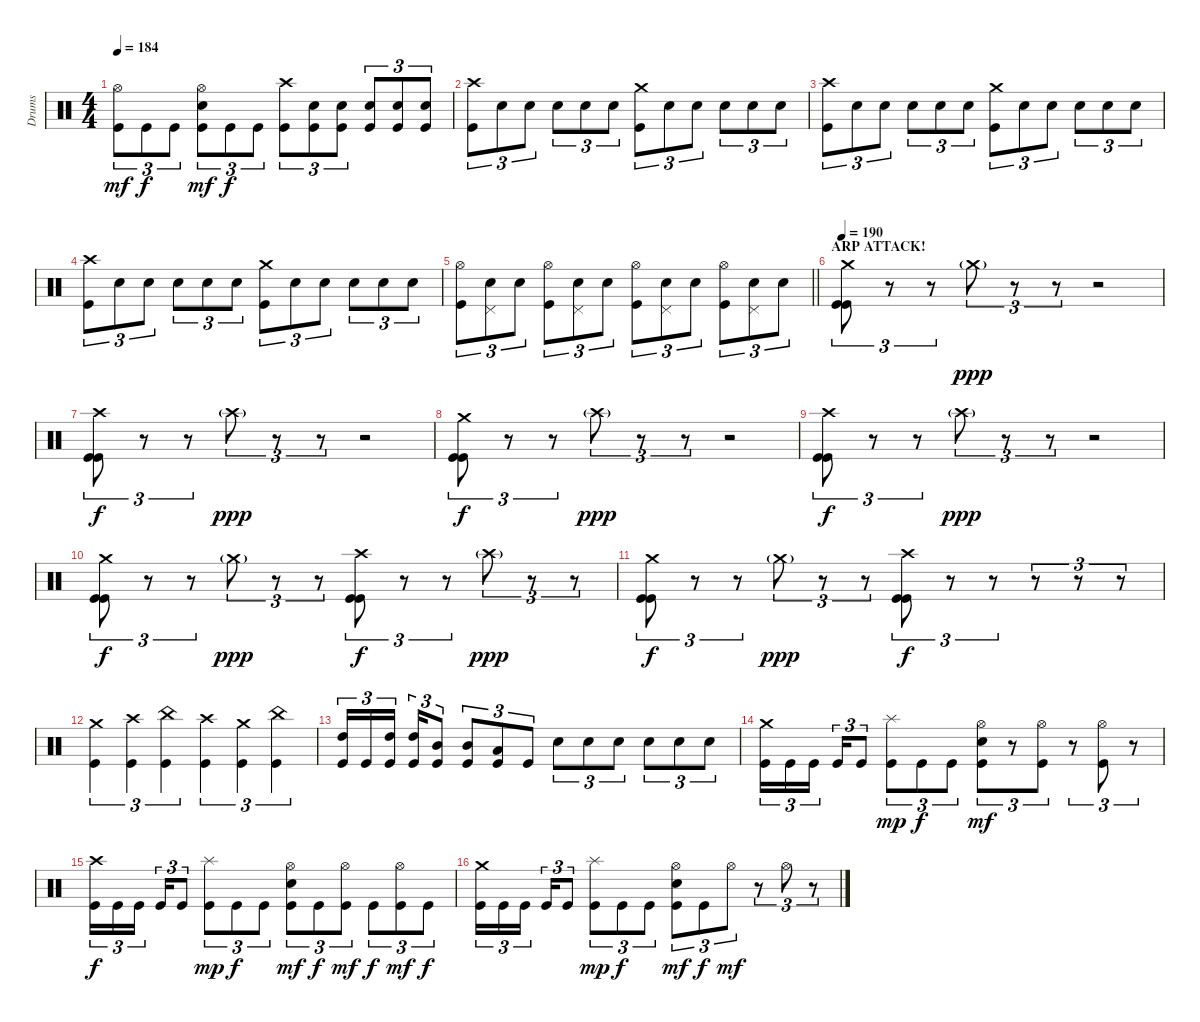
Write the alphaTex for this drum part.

\track ("Drums" "Drums") {instrument percussion}
\staff {score}
\articulation defaults
\ts (4 4)
\tempo 184
\clef neutral
\ks c
("Hi-Hat (open)" "Kick (hit)").8{tu (3 2) dy mf} "Kick (hit)".8{tu (3 2) dy f} "Kick (hit)".8{tu (3 2)} ("Hi-Hat (open)" "Electric Snare (hit)" "Kick (hit)").8{tu (3 2) dy mf} "Kick (hit)".8{tu (3 2) dy f} "Kick (hit)".8{tu (3 2)} ("Crash high (hit)" "Kick (hit)").8{tu (3 2)} ("Electric Snare (hit)" "Kick (hit)").8{tu (3 2)} ("Electric Snare (hit)" "Kick (hit)").8{tu (3 2)} ("Electric Snare (hit)" "Kick (hit)").8{tu (3 2)} ("Electric Snare (hit)" "Kick (hit)").8{tu (3 2)} ("Electric Snare (hit)" "Kick (hit)").8{tu (3 2)} |
("Crash high (hit)" "Kick (hit)").8{tu (3 2)} "Electric Snare (hit)".8{tu (3 2)} "Electric Snare (hit)".8{tu (3 2)} "Electric Snare (hit)".8{tu (3 2)} "Electric Snare (hit)".8{tu (3 2)} "Electric Snare (hit)".8{tu (3 2)} ("Crash medium (hit)" "Kick (hit)").8{tu (3 2)} "Electric Snare (hit)".8{tu (3 2)} "Electric Snare (hit)".8{tu (3 2)} "Electric Snare (hit)".8{tu (3 2)} "Electric Snare (hit)".8{tu (3 2)} "Electric Snare (hit)".8{tu (3 2)} |
("Crash high (hit)" "Kick (hit)").8{tu (3 2)} "Electric Snare (hit)".8{tu (3 2)} "Electric Snare (hit)".8{tu (3 2)} "Electric Snare (hit)".8{tu (3 2)} "Electric Snare (hit)".8{tu (3 2)} "Electric Snare (hit)".8{tu (3 2)} ("Crash medium (hit)" "Kick (hit)").8{tu (3 2)} "Electric Snare (hit)".8{tu (3 2)} "Electric Snare (hit)".8{tu (3 2)} "Electric Snare (hit)".8{tu (3 2)} "Electric Snare (hit)".8{tu (3 2)} "Electric Snare (hit)".8{tu (3 2)} |
("Crash high (hit)" "Kick (hit)").8{tu (3 2)} "Electric Snare (hit)".8{tu (3 2)} "Electric Snare (hit)".8{tu (3 2)} "Electric Snare (hit)".8{tu (3 2)} "Electric Snare (hit)".8{tu (3 2)} "Electric Snare (hit)".8{tu (3 2)} ("Crash medium (hit)" "Kick (hit)").8{tu (3 2)} "Electric Snare (hit)".8{tu (3 2)} "Electric Snare (hit)".8{tu (3 2)} "Electric Snare (hit)".8{tu (3 2)} "Electric Snare (hit)".8{tu (3 2)} "Electric Snare (hit)".8{tu (3 2)} |
\barLineRight lightlight
("Hi-Hat (open)" "Kick (hit)").8{tu (3 2)} ("Pedal Hi-Hat (hit)" "Electric Snare (hit)").8{tu (3 2)} "Electric Snare (hit)".8{tu (3 2)} ("Hi-Hat (open)" "Kick (hit)").8{tu (3 2)} ("Pedal Hi-Hat (hit)" "Electric Snare (hit)").8{tu (3 2)} "Electric Snare (hit)".8{tu (3 2)} ("Hi-Hat (open)" "Kick (hit)").8{tu (3 2)} ("Pedal Hi-Hat (hit)" "Electric Snare (hit)").8{tu (3 2)} "Electric Snare (hit)".8{tu (3 2)} ("Hi-Hat (open)" "Kick (hit)").8{tu (3 2)} ("Pedal Hi-Hat (hit)" "Electric Snare (hit)").8{tu (3 2)} "Electric Snare (hit)".8{tu (3 2)} |
\section ("" "ARP ATTACK!")
\tempo 190
("Crash medium (hit)" "Kick (hit)" "Kick (hit)").8{tu (3 2)} r.8{tu (3 2)} r.8{tu (3 2)} "Crash medium (hit)"{g}.8{tu (3 2) dy ppp volume 0} r.8{tu (3 2)} r.8{tu (3 2)} r.2 |
("Crash high (hit)" "Kick (hit)" "Kick (hit)").8{tu (3 2) dy f volume 15} r.8{tu (3 2)} r.8{tu (3 2)} "Crash high (hit)"{g}.8{tu (3 2) dy ppp volume 0} r.8{tu (3 2)} r.8{tu (3 2)} r.2 |
("Crash medium (hit)" "Kick (hit)" "Kick (hit)").8{tu (3 2) dy f volume 15} r.8{tu (3 2)} r.8{tu (3 2)} "Crash high (hit)"{g}.8{tu (3 2) dy ppp volume 0} r.8{tu (3 2)} r.8{tu (3 2)} r.2 |
("Crash high (hit)" "Kick (hit)" "Kick (hit)").8{tu (3 2) dy f volume 15} r.8{tu (3 2)} r.8{tu (3 2)} "Crash high (hit)"{g}.8{tu (3 2) dy ppp volume 0} r.8{tu (3 2)} r.8{tu (3 2)} r.2 |
("Crash medium (hit)" "Kick (hit)" "Kick (hit)").8{tu (3 2) dy f volume 15} r.8{tu (3 2)} r.8{tu (3 2)} "Crash medium (hit)"{g}.8{tu (3 2) dy ppp} r.8{tu (3 2)} r.8{tu (3 2)} ("Crash high (hit)" "Kick (hit)" "Kick (hit)").8{tu (3 2) dy f} r.8{tu (3 2)} r.8{tu (3 2)} "Crash high (hit)"{g}.8{tu (3 2) dy ppp} r.8{tu (3 2)} r.8{tu (3 2)} |
("Crash medium (hit)" "Kick (hit)" "Kick (hit)").8{tu (3 2) dy f} r.8{tu (3 2)} r.8{tu (3 2)} "Crash medium (hit)"{g}.8{tu (3 2) dy ppp} r.8{tu (3 2)} r.8{tu (3 2)} ("Crash high (hit)" "Kick (hit)" "Kick (hit)").8{tu (3 2) dy f} r.8{tu (3 2)} r.8{tu (3 2)} r.8{tu (3 2)} r.8{tu (3 2)} r.8{tu (3 2)} |
("Crash medium (hit)" "Kick (hit)").4{tu (3 2)} ("Crash high (hit)" "Kick (hit)").4{tu (3 2)} ("China (hit)" "Kick (hit)").4{tu (3 2)} ("Crash high (hit)" "Kick (hit)").4{tu (3 2)} ("Crash medium (hit)" "Kick (hit)").4{tu (3 2)} ("China (hit)" "Kick (hit)").4{tu (3 2)} |
("High Tom (hit)" "Kick (hit)").16{tu (3 2)} "Kick (hit)".16{tu (3 2)} ("High Tom (hit)" "Kick (hit)").16{tu (3 2) beam splitsecondary} ("High Tom (hit)" "Kick (hit)").16{tu (3 2)} ("Mid Tom (hit)" "Kick (hit)").8{tu (3 2)} ("Mid Tom (hit)" "Kick (hit)").8{tu (3 2)} ("Low Tom (hit)" "Kick (hit)").8{tu (3 2)} "Kick (hit)".8{tu (3 2)} "Electric Snare (hit)".8{tu (3 2)} "Electric Snare (hit)".8{tu (3 2)} "Electric Snare (hit)".8{tu (3 2)} "Electric Snare (hit)".8{tu (3 2)} "Electric Snare (hit)".8{tu (3 2)} "Electric Snare (hit)".8{tu (3 2)} |
("Crash medium (hit)" "Kick (hit)").16{tu (3 2)} "Kick (hit)".16{tu (3 2)} "Kick (hit)".16{tu (3 2) beam splitsecondary} "Kick (hit)".16{tu (3 2)} "Kick (hit)".8{tu (3 2)} ("Splash (hit)" "Kick (hit)").8{tu (3 2) dy mp} "Kick (hit)".8{tu (3 2) dy f} "Kick (hit)".8{tu (3 2)} ("Hi-Hat (open)" "Electric Snare (hit)" "Kick (hit)").8{tu (3 2) dy mf} r.8{tu (3 2)} ("Hi-Hat (open)" "Kick (hit)").8{tu (3 2)} r.8{tu (3 2)} ("Hi-Hat (open)" "Kick (hit)").8{tu (3 2)} r.8{tu (3 2)} |
("Crash high (hit)" "Kick (hit)").16{tu (3 2) dy f} "Kick (hit)".16{tu (3 2)} "Kick (hit)".16{tu (3 2) beam splitsecondary} "Kick (hit)".16{tu (3 2)} "Kick (hit)".8{tu (3 2)} ("Splash (hit)" "Kick (hit)").8{tu (3 2) dy mp} "Kick (hit)".8{tu (3 2) dy f} "Kick (hit)".8{tu (3 2)} ("Hi-Hat (open)" "Electric Snare (hit)" "Kick (hit)").8{tu (3 2) dy mf} "Kick (hit)".8{tu (3 2) dy f} ("Hi-Hat (open)" "Kick (hit)").8{tu (3 2) dy mf} "Kick (hit)".8{tu (3 2) dy f} ("Hi-Hat (open)" "Kick (hit)").8{tu (3 2) dy mf} "Kick (hit)".8{tu (3 2) dy f} |
("Crash medium (hit)" "Kick (hit)").16{tu (3 2)} "Kick (hit)".16{tu (3 2)} "Kick (hit)".16{tu (3 2) beam splitsecondary} "Kick (hit)".16{tu (3 2)} "Kick (hit)".8{tu (3 2)} ("Splash (hit)" "Kick (hit)").8{tu (3 2) dy mp} "Kick (hit)".8{tu (3 2) dy f} "Kick (hit)".8{tu (3 2)} ("Hi-Hat (open)" "Electric Snare (hit)" "Kick (hit)").8{tu (3 2) dy mf} "Kick (hit)".8{tu (3 2) dy f} "Hi-Hat (open)".8{tu (3 2) dy mf} r.8{tu (3 2)} "Hi-Hat (open)".8{tu (3 2)} r.8{tu (3 2)}
